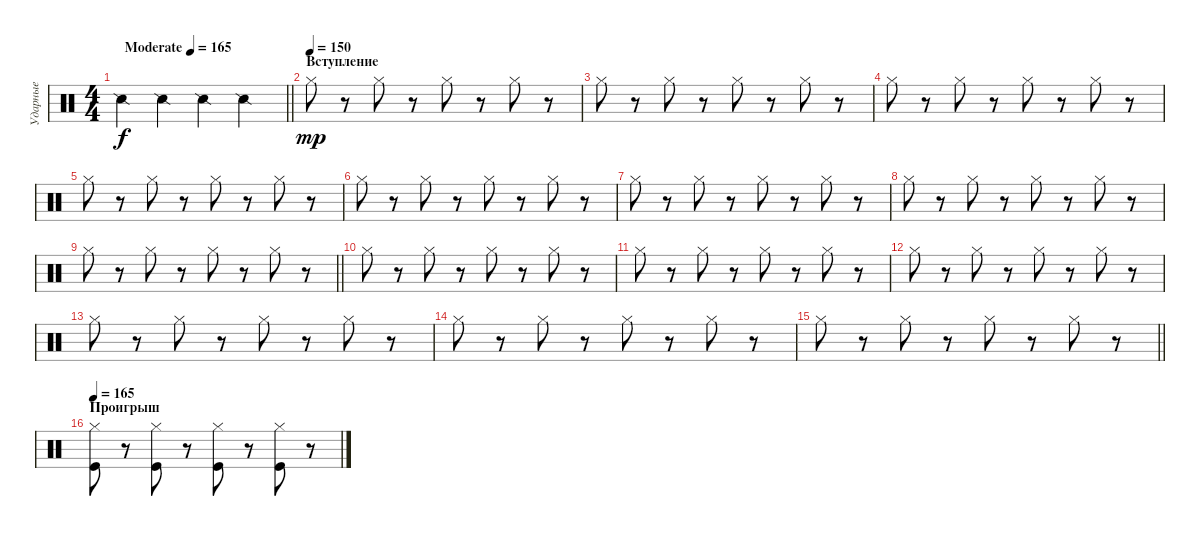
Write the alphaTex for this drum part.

\track ("Ударные" "Ударные") {instrument percussion}
\staff {score}
\articulation defaults
\ts (4 4)
\tempo (165 "Moderate")
\clef neutral
\barLineRight lightlight
\ks c "Snare (side stick) 2".4{dy f} "Snare (side stick) 2".4 "Snare (side stick) 2".4 "Snare (side stick) 2".4
|
\section ("" "Вступление")
\tempo (150)
"Hi-Hat (closed)".8{dy mp} r.8 "Hi-Hat (closed)".8 r.8 "Hi-Hat (closed)".8 r.8 "Hi-Hat (closed)".8 r.8 |
"Hi-Hat (closed)".8 r.8 "Hi-Hat (closed)".8 r.8 "Hi-Hat (closed)".8 r.8 "Hi-Hat (closed)".8 r.8 |
"Hi-Hat (closed)".8 r.8 "Hi-Hat (closed)".8 r.8 "Hi-Hat (closed)".8 r.8 "Hi-Hat (closed)".8 r.8 |
"Hi-Hat (closed)".8 r.8 "Hi-Hat (closed)".8 r.8 "Hi-Hat (closed)".8 r.8 "Hi-Hat (closed)".8 r.8 |
"Hi-Hat (closed)".8 r.8 "Hi-Hat (closed)".8 r.8 "Hi-Hat (closed)".8 r.8 "Hi-Hat (closed)".8 r.8 |
"Hi-Hat (closed)".8 r.8 "Hi-Hat (closed)".8 r.8 "Hi-Hat (closed)".8 r.8 "Hi-Hat (closed)".8 r.8 |
"Hi-Hat (closed)".8 r.8 "Hi-Hat (closed)".8 r.8 "Hi-Hat (closed)".8 r.8 "Hi-Hat (closed)".8 r.8 |
\barLineRight lightlight "Hi-Hat (closed)".8
r.8 "Hi-Hat (closed)".8 r.8 "Hi-Hat (closed)".8 r.8 "Hi-Hat (closed)".8 r.8 |
\section ("" " ")
"Hi-Hat (closed)".8 r.8 "Hi-Hat (closed)".8 r.8 "Hi-Hat (closed)".8 r.8 "Hi-Hat (closed)".8 r.8 |
"Hi-Hat (closed)".8 r.8 "Hi-Hat (closed)".8 r.8 "Hi-Hat (closed)".8 r.8 "Hi-Hat (closed)".8 r.8 |
"Hi-Hat (closed)".8 r.8 "Hi-Hat (closed)".8 r.8 "Hi-Hat (closed)".8 r.8 "Hi-Hat (closed)".8 r.8 |
"Hi-Hat (closed)".8 r.8 "Hi-Hat (closed)".8 r.8 "Hi-Hat (closed)".8 r.8 "Hi-Hat (closed)".8 r.8 |
"Hi-Hat (closed)".8 r.8 "Hi-Hat (closed)".8 r.8 "Hi-Hat (closed)".8 r.8 "Hi-Hat (closed)".8 r.8 |
\barLineRight lightlight "Hi-Hat (closed)".8
r.8 "Hi-Hat (closed)".8 r.8 "Hi-Hat (closed)".8 r.8 "Hi-Hat (closed)".8 r.8 |
\section ("" "Проигрыш")
\tempo 165
("Hi-Hat (closed)" "Kick (hit)").8 r.8 ("Hi-Hat (closed)" "Kick (hit)").8 r.8 ("Hi-Hat (closed)" "Kick (hit)").8 r.8 ("Hi-Hat (closed)" "Kick (hit)").8 r.8
